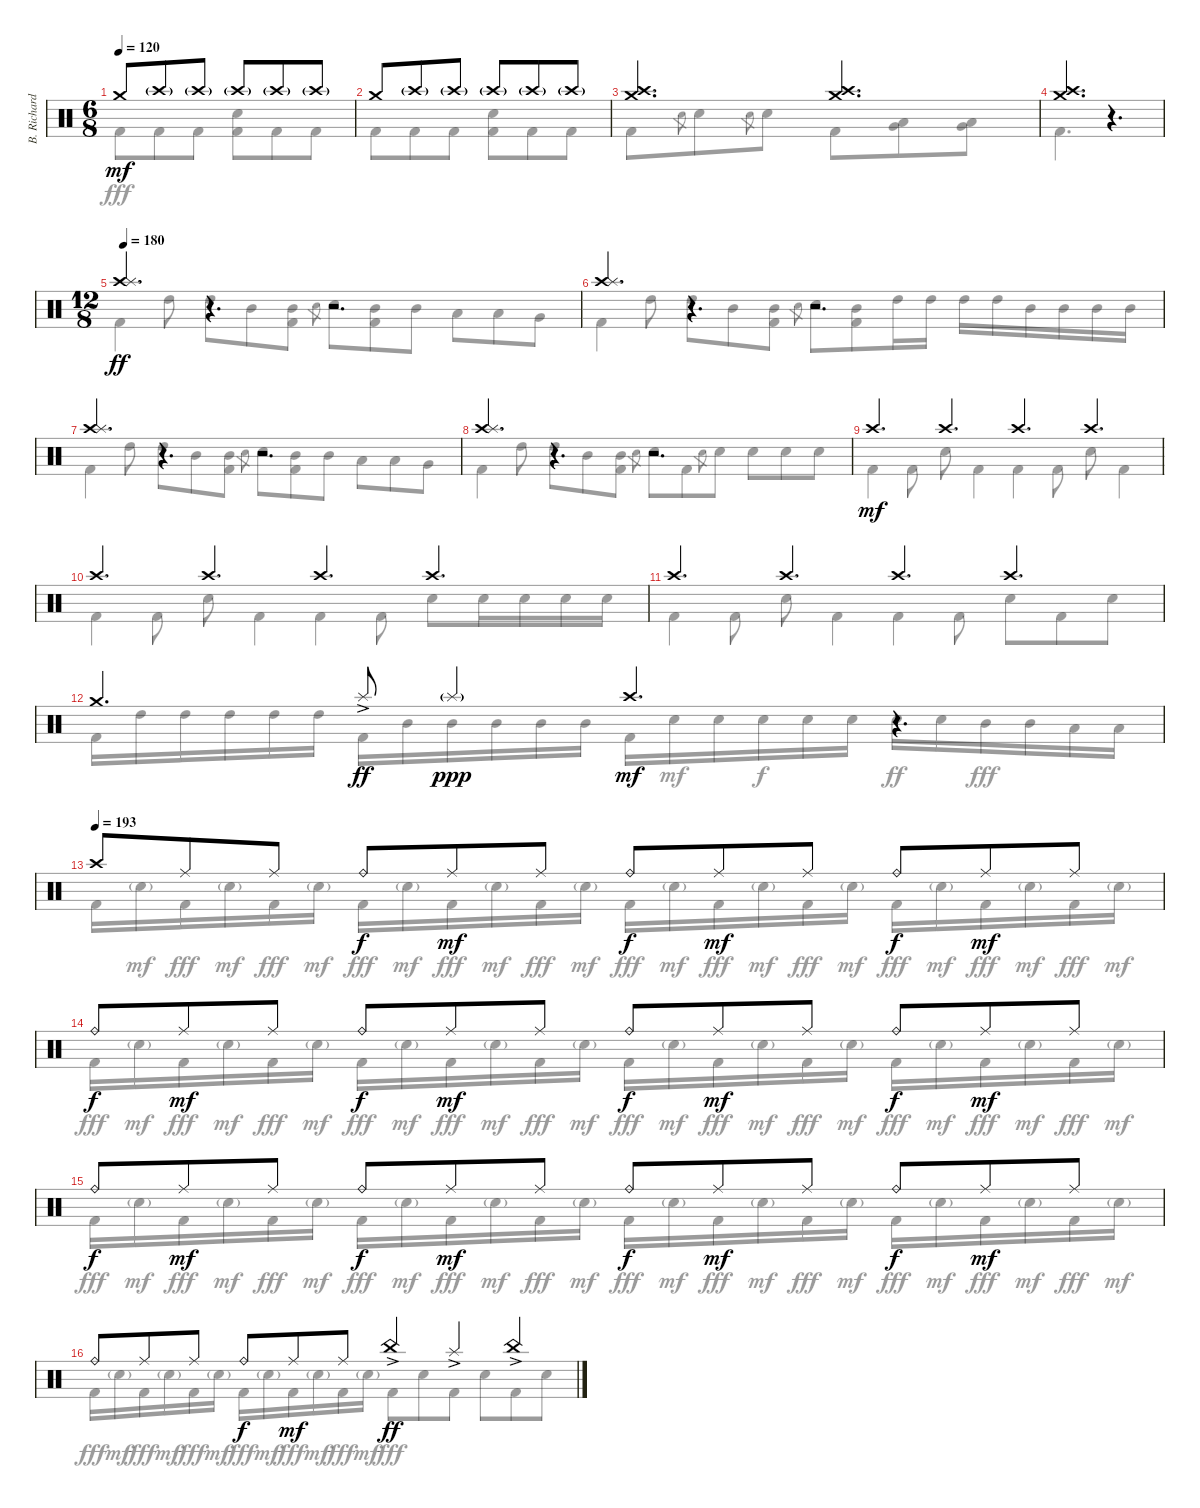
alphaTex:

\track ("B. Richardson Drums" "B. Richard") {instrument percussion}
\staff {score}
\articulation defaults
\voice
\ts (6 8)
\tempo 120
\clef neutral
\ks c "Crash medium (hit)".8{dy mf} "Crash high (hit)"{g}.8 "Crash high (hit)"{g}.8 "Crash high (hit)"{g}.8 "Crash high (hit)"{g}.8 "Crash high (hit)"{g}.8
|
"Crash medium (hit)".8 "Crash high (hit)"{g}.8 "Crash high (hit)"{g}.8 "Crash high (hit)"{g}.8 "Crash high (hit)"{g}.8 "Crash high (hit)"{g}.8 |
("Crash high (hit)" "Crash medium (hit)").4{d} ("Crash high (hit)" "Crash medium (hit)").4{d} |
("Crash high (hit)" "Crash medium (hit)").4{d} r.4{d} |
\ts (12 8)
\tempo 180
("Crash high (hit)" "Splash (hit)").4{d dy ff} r.4{d} r.2{d} |
("Crash high (hit)" "Splash (hit)").4{d} r.4{d} r.2{d} |
("Crash high (hit)" "Splash (hit)").4{d} r.4{d} r.2{d} |
("Crash high (hit)" "Splash (hit)").4{d} r.4{d} r.2{d} |
"Crash high (hit)".4{d dy mf} "Crash high (hit)".4{d} "Crash high (hit)".4{d} "Crash high (hit)".4{d} |
"Crash high (hit)".4{d} "Crash high (hit)".4{d} "Crash high (hit)".4{d} "Crash high (hit)".4{d} |
"Crash high (hit)".4{d} "Crash high (hit)".4{d} "Crash high (hit)".4{d} "Crash high (hit)".4{d} |
"Crash medium (hit)".4{d} "Splash (hit)"{ac}.8{dy ff} "Splash (hit)"{g}.4{dy ppp} "Crash high (hit)".4{d dy mf} r.4{d} |
\tempo (193)
"Crash high (hit)".8 "Ride (middle)".8 "Ride (middle)".8 "Ride (bell)".8{dy f} "Ride (middle)".8{dy mf} "Ride (middle)".8 "Ride (bell)".8{dy f} "Ride (middle)".8{dy mf} "Ride (middle)".8 "Ride (bell)".8{dy f} "Ride (middle)".8{dy mf} "Ride (middle)".8 |
"Ride (bell)".8{dy f} "Ride (middle)".8{dy mf} "Ride (middle)".8 "Ride (bell)".8{dy f} "Ride (middle)".8{dy mf} "Ride (middle)".8 "Ride (bell)".8{dy f} "Ride (middle)".8{dy mf} "Ride (middle)".8 "Ride (bell)".8{dy f} "Ride (middle)".8{dy mf} "Ride (middle)".8 |
"Ride (bell)".8{dy f} "Ride (middle)".8{dy mf} "Ride (middle)".8 "Ride (bell)".8{dy f} "Ride (middle)".8{dy mf} "Ride (middle)".8 "Ride (bell)".8{dy f} "Ride (middle)".8{dy mf} "Ride (middle)".8 "Ride (bell)".8{dy f} "Ride (middle)".8{dy mf} "Ride (middle)".8 |
"Ride (bell)".8 "Ride (middle)".8 "Ride (middle)".8 "Ride (bell)".8{dy f} "Ride (middle)".8{dy mf} "Ride (middle)".8 "China (hit)"{ac}.4{dy ff} "Splash (hit)"{ac}.4 "China (hit)"{ac}.4
\voice
\clef neutral
\ottava regular
\simile none
\ks c "Kick (hit) 2".8{dy fff} "Kick (hit) 2".8 "Kick (hit) 2".8
("Electric Snare (hit)" "Kick (hit) 2").8 "Kick (hit) 2".8 "Kick (hit) 2".8 |
"Kick (hit) 2".8 "Kick (hit) 2".8 "Kick (hit) 2".8 ("Electric Snare (hit)" "Kick (hit) 2").8 "Kick (hit) 2".8 "Kick (hit) 2".8 |
"Kick (hit) 2".8 "Electric Snare (hit)".8{gr} "Electric Snare (hit)".8 "Electric Snare (hit)".8{gr} "Electric Snare (hit)".8 "Kick (hit) 2".8 ("Low Tom (hit)" "Very Low Tom (hit)").8 ("Low Tom (hit)" "Very Low Tom (hit)").8 |
"Kick (hit) 2".4{d} r.4{d} |
"Kick (hit) 2".4 "High Tom (hit)".8 "High Tom (hit)".8 "Mid Tom (hit)".8 ("Mid Tom (hit)" "Kick (hit) 2").8 "Electric Snare (hit)".8{gr} "Electric Snare (hit)".8 ("Mid Tom (hit)" "Kick (hit) 2").8 "Mid Tom (hit)".8 "Low Tom (hit)".8 "Low Tom (hit)".8 "Very Low Tom (hit)".8 |
"Kick (hit) 2".4 "High Tom (hit)".8 "High Tom (hit)".8 "Mid Tom (hit)".8 ("Mid Tom (hit)" "Kick (hit) 2").8 "Electric Snare (hit)".8{gr} "Electric Snare (hit)".8 ("Mid Tom (hit)" "Kick (hit) 2").8 "High Tom (hit)".16 "High Tom (hit)".16 "High Tom (hit)".16 "High Tom (hit)".16 "Mid Tom (hit)".16 "Mid Tom (hit)".16 "Mid Tom (hit)".16 "Mid Tom (hit)".16 |
"Kick (hit) 2".4 "High Tom (hit)".8 "High Tom (hit)".8 "Mid Tom (hit)".8 ("Mid Tom (hit)" "Kick (hit) 2").8 "Electric Snare (hit)".8{gr} "Electric Snare (hit)".8 ("Mid Tom (hit)" "Kick (hit) 2").8 "Mid Tom (hit)".8 "Low Tom (hit)".8 "Low Tom (hit)".8 "Very Low Tom (hit)".8 |
"Kick (hit) 2".4 "High Tom (hit)".8 "High Tom (hit)".8 "Mid Tom (hit)".8 ("Mid Tom (hit)" "Kick (hit) 2").8 "Electric Snare (hit)".8{gr} "Electric Snare (hit)".8 "Kick (hit) 2".8 "Electric Snare (hit)".8{gr} "Electric Snare (hit)".8 "Electric Snare (hit)".8 "Electric Snare (hit)".8 "Electric Snare (hit)".8 |
"Kick (hit) 2".4 "Kick (hit) 2".8 "Electric Snare (hit)".8 "Kick (hit) 2".4 "Kick (hit) 2".4 "Kick (hit) 2".8 "Electric Snare (hit)".8 "Kick (hit) 2".4 |
"Kick (hit) 2".4 "Kick (hit) 2".8 "Electric Snare (hit)".8 "Kick (hit) 2".4 "Kick (hit) 2".4 "Kick (hit) 2".8 "Electric Snare (hit)".8 "Electric Snare (hit)".16 "Electric Snare (hit)".16 "Electric Snare (hit)".16 "Electric Snare (hit)".16 |
"Kick (hit) 2".4 "Kick (hit) 2".8 "Electric Snare (hit)".8 "Kick (hit) 2".4 "Kick (hit) 2".4 "Kick (hit) 2".8 "Electric Snare (hit)".8 "Kick (hit) 2".8 "Electric Snare (hit)".8 |
"Kick (hit) 2".16 "High Tom (hit)".16 "High Tom (hit)".16 "High Tom (hit)".16 "High Tom (hit)".16 "High Tom (hit)".16 "Kick (hit) 2".16 "Mid Tom (hit)".16 "Mid Tom (hit)".16 "Mid Tom (hit)".16 "Mid Tom (hit)".16 "Mid Tom (hit)".16 "Kick (hit) 2".16 "Electric Snare (hit)".16{dy mf} "Electric Snare (hit)".16 "Electric Snare (hit)".16{dy f} "Electric Snare (hit)".16 "Electric Snare (hit)".16 "Electric Snare (hit)".16{dy ff} "Electric Snare (hit)".16 "Mid Tom (hit)".16{dy fff} "Mid Tom (hit)".16 "Low Tom (hit)".16 "Low Tom (hit)".16 |
"Kick (hit) 2".16 "Electric Snare (hit)"{g}.16{dy mf} "Kick (hit) 2".16{dy fff} "Electric Snare (hit)"{g}.16{dy mf} "Kick (hit) 2".16{dy fff} "Electric Snare (hit)"{g}.16{dy mf} "Kick (hit) 2".16{dy fff} "Electric Snare (hit)"{g}.16{dy mf} "Kick (hit) 2".16{dy fff} "Electric Snare (hit)"{g}.16{dy mf} "Kick (hit) 2".16{dy fff} "Electric Snare (hit)"{g}.16{dy mf} "Kick (hit) 2".16{dy fff} "Electric Snare (hit)"{g}.16{dy mf} "Kick (hit) 2".16{dy fff} "Electric Snare (hit)"{g}.16{dy mf} "Kick (hit) 2".16{dy fff} "Electric Snare (hit)"{g}.16{dy mf} "Kick (hit) 2".16{dy fff} "Electric Snare (hit)"{g}.16{dy mf} "Kick (hit) 2".16{dy fff} "Electric Snare (hit)"{g}.16{dy mf} "Kick (hit) 2".16{dy fff} "Electric Snare (hit)"{g}.16{dy mf} |
"Kick (hit) 2".16{dy fff} "Electric Snare (hit)"{g}.16{dy mf} "Kick (hit) 2".16{dy fff} "Electric Snare (hit)"{g}.16{dy mf} "Kick (hit) 2".16{dy fff} "Electric Snare (hit)"{g}.16{dy mf} "Kick (hit) 2".16{dy fff} "Electric Snare (hit)"{g}.16{dy mf} "Kick (hit) 2".16{dy fff} "Electric Snare (hit)"{g}.16{dy mf} "Kick (hit) 2".16{dy fff} "Electric Snare (hit)"{g}.16{dy mf} "Kick (hit) 2".16{dy fff} "Electric Snare (hit)"{g}.16{dy mf} "Kick (hit) 2".16{dy fff} "Electric Snare (hit)"{g}.16{dy mf} "Kick (hit) 2".16{dy fff} "Electric Snare (hit)"{g}.16{dy mf} "Kick (hit) 2".16{dy fff} "Electric Snare (hit)"{g}.16{dy mf} "Kick (hit) 2".16{dy fff} "Electric Snare (hit)"{g}.16{dy mf} "Kick (hit) 2".16{dy fff} "Electric Snare (hit)"{g}.16{dy mf} |
"Kick (hit) 2".16{dy fff} "Electric Snare (hit)"{g}.16{dy mf} "Kick (hit) 2".16{dy fff} "Electric Snare (hit)"{g}.16{dy mf} "Kick (hit) 2".16{dy fff} "Electric Snare (hit)"{g}.16{dy mf} "Kick (hit) 2".16{dy fff} "Electric Snare (hit)"{g}.16{dy mf} "Kick (hit) 2".16{dy fff} "Electric Snare (hit)"{g}.16{dy mf} "Kick (hit) 2".16{dy fff} "Electric Snare (hit)"{g}.16{dy mf} "Kick (hit) 2".16{dy fff} "Electric Snare (hit)"{g}.16{dy mf} "Kick (hit) 2".16{dy fff} "Electric Snare (hit)"{g}.16{dy mf} "Kick (hit) 2".16{dy fff} "Electric Snare (hit)"{g}.16{dy mf} "Kick (hit) 2".16{dy fff} "Electric Snare (hit)"{g}.16{dy mf} "Kick (hit) 2".16{dy fff} "Electric Snare (hit)"{g}.16{dy mf} "Kick (hit) 2".16{dy fff} "Electric Snare (hit)"{g}.16{dy mf} |
"Kick (hit) 2".16{dy fff} "Electric Snare (hit)"{g}.16{dy mf} "Kick (hit) 2".16{dy fff} "Electric Snare (hit)"{g}.16{dy mf} "Kick (hit) 2".16{dy fff} "Electric Snare (hit)"{g}.16{dy mf} "Kick (hit) 2".16{dy fff} "Electric Snare (hit)"{g}.16{dy mf} "Kick (hit) 2".16{dy fff} "Electric Snare (hit)"{g}.16{dy mf} "Kick (hit) 2".16{dy fff} "Electric Snare (hit)"{g}.16{dy mf} "Kick (hit) 2".8{dy fff} "Electric Snare (hit)".8 "Kick (hit) 2".8 "Electric Snare (hit)".8 "Kick (hit) 2".8 "Electric Snare (hit)".8
